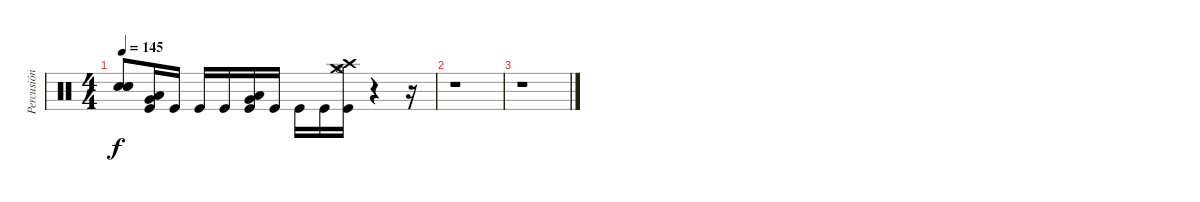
\track ("Percusión" "Percusión") {instrument percussion}
\staff {score}
\articulation defaults
\ts (4 4)
\tempo 145
\clef neutral
\ks c
("Snare (hit)"{t} "Snare (hit)"{t} "Snare (hit)"{t}).8{dy f} ("Low Tom (hit)" "Very Low Tom (hit)" "Kick (hit)").16 "Kick (hit)".16 "Kick (hit)".16 "Kick (hit)".16 ("Low Tom (hit)" "Very Low Tom (hit)" "Kick (hit)").16 "Kick (hit)".16 "Kick (hit)".16 "Kick (hit)".16 ("Kick (hit)" "Crash high (hit)" "Crash medium (hit)" "Hi-Hat (open)").16 r.4 r.16 |
r.1 |
r.1
